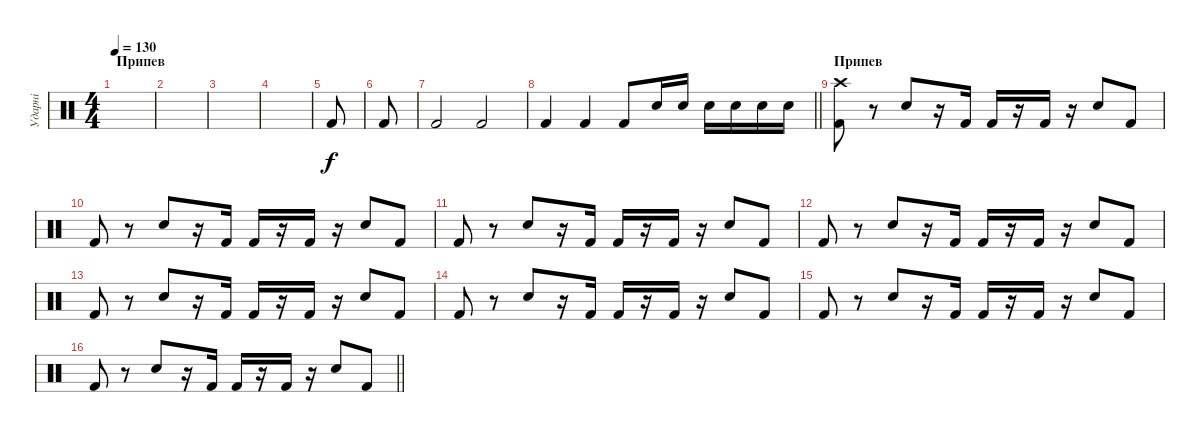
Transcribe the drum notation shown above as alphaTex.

\track ("Ударні" "Ударні") {instrument percussion}
\staff {score}
\articulation defaults
\ts (4 4)
\section ("" "Припев")
\tempo 130
\clef neutral
\ks c
|
|
|
|
"Kick (hit) 2".8 |
"Kick (hit) 2".8 |
"Kick (hit) 2".2 "Kick (hit) 2".2 |
\barLineRight lightlight "Kick (hit) 2".4 "Kick (hit) 2".4 "Kick (hit) 2".8 "Snare (hit) 2".16 "Snare (hit) 2".16 "Snare (hit) 2".16 "Snare (hit) 2".16 "Snare (hit) 2".16 "Snare (hit) 2".16
|
\section ("" "Припев")
("Kick (hit) 2" "Crash high (hit)").8 r.8 "Snare (hit) 2".8 r.16 "Kick (hit) 2".16 "Kick (hit) 2".16 r.16 "Kick (hit) 2".16 r.16 "Snare (hit) 2".8 "Kick (hit) 2".8 |
"Kick (hit) 2".8 r.8 "Snare (hit) 2".8 r.16 "Kick (hit) 2".16 "Kick (hit) 2".16 r.16 "Kick (hit) 2".16 r.16 "Snare (hit) 2".8 "Kick (hit) 2".8 |
"Kick (hit) 2".8 r.8 "Snare (hit) 2".8 r.16 "Kick (hit) 2".16 "Kick (hit) 2".16 r.16 "Kick (hit) 2".16 r.16 "Snare (hit) 2".8 "Kick (hit) 2".8 |
"Kick (hit) 2".8 r.8 "Snare (hit) 2".8 r.16 "Kick (hit) 2".16 "Kick (hit) 2".16 r.16 "Kick (hit) 2".16 r.16 "Snare (hit) 2".8 "Kick (hit) 2".8 |
"Kick (hit) 2".8 r.8 "Snare (hit) 2".8 r.16 "Kick (hit) 2".16 "Kick (hit) 2".16 r.16 "Kick (hit) 2".16 r.16 "Snare (hit) 2".8 "Kick (hit) 2".8 |
"Kick (hit) 2".8 r.8 "Snare (hit) 2".8 r.16 "Kick (hit) 2".16 "Kick (hit) 2".16 r.16 "Kick (hit) 2".16 r.16 "Snare (hit) 2".8 "Kick (hit) 2".8 |
"Kick (hit) 2".8 r.8 "Snare (hit) 2".8 r.16 "Kick (hit) 2".16 "Kick (hit) 2".16 r.16 "Kick (hit) 2".16 r.16 "Snare (hit) 2".8 "Kick (hit) 2".8 |
\barLineRight lightlight "Kick (hit) 2".8
r.8 "Snare (hit) 2".8 r.16 "Kick (hit) 2".16 "Kick (hit) 2".16 r.16 "Kick (hit) 2".16 r.16 "Snare (hit) 2".8 "Kick (hit) 2".8
